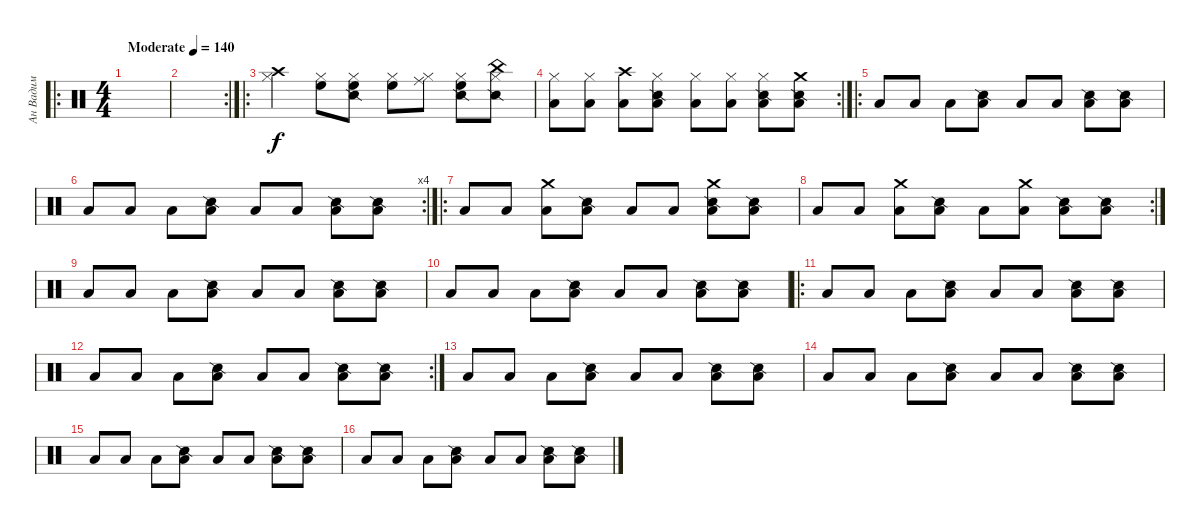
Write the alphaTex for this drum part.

\track ("Ан Вадим" "Ан Вадим") {instrument percussion}
\staff {score}
\articulation defaults
\ro
\ts (4 4)
\tempo (140 "Moderate")
\clef neutral
\ks c
|
\rc 2
|
\ro
("Crash high (hit)" "Hi-Hat (closed)").4 ("High Floor Tom (hit)" "Hi-Hat (closed)").8 ("Snare (side stick) 2" "High Floor Tom (hit)" "Hi-Hat (closed)").8 ("High Floor Tom (hit)" "Hi-Hat (closed)").8 ("Ride (middle)" "Hi-Hat (closed)").8 ("Snare (side stick) 2" "High Floor Tom (hit)" "Hi-Hat (closed)").8 ("Snare (side stick) 2" "China (hit)" "Hi-Hat (closed)").8 |
\rc 2
("Low Tom (hit)" "Hi-Hat (closed)").8 ("Low Tom (hit)" "Hi-Hat (closed)").8 ("Low Tom (hit)" "Crash high (hit)").8 ("Snare (side stick) 2" "Low Tom (hit)" "Hi-Hat (closed)").8 ("Low Tom (hit)" "Hi-Hat (closed)").8 ("Low Tom (hit)" "Hi-Hat (closed)").8 ("Snare (side stick) 2" "Low Tom (hit)" "Hi-Hat (closed)").8 ("Snare (side stick) 2" "Low Tom (hit)" "Crash medium (hit)").8 |
\ro "Low Floor Tom (hit)".8 "Low Floor Tom (hit)".8 "Low Floor Tom (hit)".8
("Snare (side stick) 2" "Low Floor Tom (hit)").8 "Low Floor Tom (hit)".8 "Low Floor Tom (hit)".8 ("Snare (side stick) 2" "Low Floor Tom (hit)").8 ("Snare (side stick) 2" "Low Floor Tom (hit)").8 |
\rc 4 "Low Floor Tom (hit)".8 "Low Floor Tom (hit)".8 "Low Floor Tom (hit)".8
("Snare (side stick) 2" "Low Floor Tom (hit)").8 "Low Floor Tom (hit)".8 "Low Floor Tom (hit)".8 ("Snare (side stick) 2" "Low Floor Tom (hit)").8 ("Snare (side stick) 2" "Low Floor Tom (hit)").8 |
\ro "Low Floor Tom (hit)".8 "Low Floor Tom (hit)".8
("Crash medium (hit)" "Low Floor Tom (hit)").8 ("Snare (side stick) 2" "Low Floor Tom (hit)").8 "Low Floor Tom (hit)".8 "Low Floor Tom (hit)".8 ("Snare (side stick) 2" "Crash medium (hit)" "Low Floor Tom (hit)").8 ("Snare (side stick) 2" "Low Floor Tom (hit)").8 |
\rc 2 "Low Floor Tom (hit)".8 "Low Floor Tom (hit)".8
("Crash medium (hit)" "Low Floor Tom (hit)").8 ("Snare (side stick) 2" "Low Floor Tom (hit)").8 "Low Floor Tom (hit)".8 ("Crash medium (hit)" "Low Floor Tom (hit)").8 ("Snare (side stick) 2" "Low Floor Tom (hit)").8 ("Snare (side stick) 2" "Low Floor Tom (hit)").8 |
"Low Floor Tom (hit)".8 "Low Floor Tom (hit)".8 "Low Floor Tom (hit)".8 ("Snare (side stick) 2" "Low Floor Tom (hit)").8 "Low Floor Tom (hit)".8 "Low Floor Tom (hit)".8 ("Snare (side stick) 2" "Low Floor Tom (hit)").8 ("Snare (side stick) 2" "Low Floor Tom (hit)").8 |
"Low Floor Tom (hit)".8 "Low Floor Tom (hit)".8 "Low Floor Tom (hit)".8 ("Snare (side stick) 2" "Low Floor Tom (hit)").8 "Low Floor Tom (hit)".8 "Low Floor Tom (hit)".8 ("Snare (side stick) 2" "Low Floor Tom (hit)").8 ("Snare (side stick) 2" "Low Floor Tom (hit)").8 |
\ro "Low Floor Tom (hit)".8 "Low Floor Tom (hit)".8 "Low Floor Tom (hit)".8
("Snare (side stick) 2" "Low Floor Tom (hit)").8 "Low Floor Tom (hit)".8 "Low Floor Tom (hit)".8 ("Snare (side stick) 2" "Low Floor Tom (hit)").8 ("Snare (side stick) 2" "Low Floor Tom (hit)").8 |
\rc 2 "Low Floor Tom (hit)".8 "Low Floor Tom (hit)".8 "Low Floor Tom (hit)".8
("Snare (side stick) 2" "Low Floor Tom (hit)").8 "Low Floor Tom (hit)".8 "Low Floor Tom (hit)".8 ("Snare (side stick) 2" "Low Floor Tom (hit)").8 ("Snare (side stick) 2" "Low Floor Tom (hit)").8 |
"Low Floor Tom (hit)".8 "Low Floor Tom (hit)".8 "Low Floor Tom (hit)".8 ("Snare (side stick) 2" "Low Floor Tom (hit)").8 "Low Floor Tom (hit)".8 "Low Floor Tom (hit)".8 ("Snare (side stick) 2" "Low Floor Tom (hit)").8 ("Snare (side stick) 2" "Low Floor Tom (hit)").8 |
"Low Floor Tom (hit)".8 "Low Floor Tom (hit)".8 "Low Floor Tom (hit)".8 ("Snare (side stick) 2" "Low Floor Tom (hit)").8 "Low Floor Tom (hit)".8 "Low Floor Tom (hit)".8 ("Snare (side stick) 2" "Low Floor Tom (hit)").8 ("Snare (side stick) 2" "Low Floor Tom (hit)").8 |
"Low Floor Tom (hit)".8 "Low Floor Tom (hit)".8 "Low Floor Tom (hit)".8 ("Snare (side stick) 2" "Low Floor Tom (hit)").8 "Low Floor Tom (hit)".8 "Low Floor Tom (hit)".8 ("Snare (side stick) 2" "Low Floor Tom (hit)").8 ("Snare (side stick) 2" "Low Floor Tom (hit)").8 |
"Low Floor Tom (hit)".8 "Low Floor Tom (hit)".8 "Low Floor Tom (hit)".8 ("Snare (side stick) 2" "Low Floor Tom (hit)").8 "Low Floor Tom (hit)".8 "Low Floor Tom (hit)".8 ("Snare (side stick) 2" "Low Floor Tom (hit)").8 ("Snare (side stick) 2" "Low Floor Tom (hit)").8
